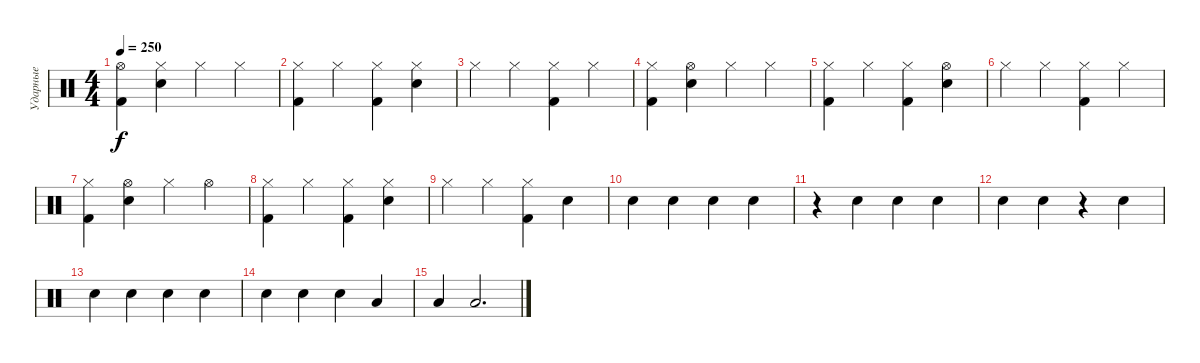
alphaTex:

\track ("Ударные" "Ударные") {instrument percussion}
\staff {score}
\articulation defaults
\ts (4 4)
\tempo 250
\clef neutral
\ks c
("Hi-Hat (open)" "Kick (hit) 2").4{dy f} ("Snare (hit) 2" "Hi-Hat (closed)").4 "Hi-Hat (closed)".4 "Hi-Hat (closed)".4 |
("Hi-Hat (closed)" "Kick (hit) 2").4 "Hi-Hat (closed)".4 ("Hi-Hat (closed)" "Kick (hit) 2").4 ("Snare (hit) 2" "Hi-Hat (closed)").4 |
"Hi-Hat (closed)".4 "Hi-Hat (closed)".4 ("Hi-Hat (closed)" "Kick (hit) 2").4 "Hi-Hat (closed)".4 |
("Hi-Hat (closed)" "Kick (hit) 2").4 ("Snare (hit) 2" "Hi-Hat (open)").4 "Hi-Hat (closed)".4 "Hi-Hat (closed)".4 |
("Hi-Hat (closed)" "Kick (hit) 2").4 "Hi-Hat (closed)".4 ("Hi-Hat (closed)" "Kick (hit) 2").4 ("Snare (hit) 2" "Hi-Hat (open)").4 |
"Hi-Hat (closed)".4 "Hi-Hat (closed)".4 ("Hi-Hat (closed)" "Kick (hit) 2").4 "Hi-Hat (closed)".4 |
("Hi-Hat (closed)" "Kick (hit) 2").4 ("Snare (hit) 2" "Hi-Hat (open)").4 "Hi-Hat (closed)".4 "Hi-Hat (open)".4 |
("Hi-Hat (closed)" "Kick (hit) 2").4 "Hi-Hat (closed)".4 ("Hi-Hat (closed)" "Kick (hit) 2").4 ("Snare (hit) 2" "Hi-Hat (closed)").4 |
"Hi-Hat (closed)".4 "Hi-Hat (closed)".4 ("Hi-Hat (closed)" "Kick (hit) 2").4 "Snare (hit) 2".4 |
"Snare (hit) 2".4 "Snare (hit) 2".4 "Snare (hit) 2".4 "Snare (hit) 2".4 |
r.4 "Snare (hit) 2".4 "Snare (hit) 2".4 "Snare (hit) 2".4 |
"Snare (hit) 2".4 "Snare (hit) 2".4 r.4 "Snare (hit) 2".4 |
"Snare (hit) 2".4 "Snare (hit) 2".4 "Snare (hit) 2".4 "Snare (hit) 2".4 |
"Snare (hit) 2".4 "Snare (hit) 2".4 "Snare (hit) 2".4 "Low Tom (hit)".4 |
"Low Tom (hit)".4 "Low Tom (hit)".2{d}
